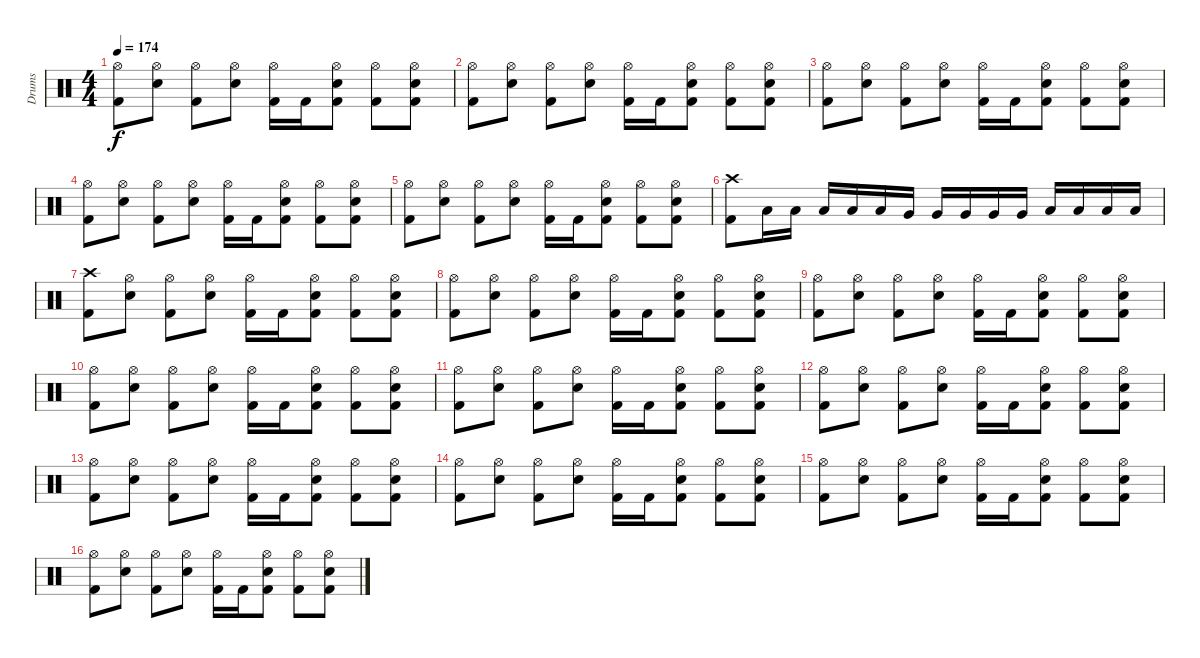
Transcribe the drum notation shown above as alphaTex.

\track ("Drums" "Drums") {instrument percussion}
\staff {score}
\articulation defaults
\ts (4 4)
\tempo 174
\clef neutral
\ks c
("Hi-Hat (open)" "Kick (hit) 2").8{dy f} ("Hi-Hat (open)" "Electric Snare (hit)").8 ("Hi-Hat (open)" "Kick (hit) 2").8 ("Hi-Hat (open)" "Electric Snare (hit)").8 ("Hi-Hat (open)" "Kick (hit) 2").16 "Kick (hit) 2".16 ("Hi-Hat (open)" "Electric Snare (hit)" "Kick (hit) 2").8 ("Hi-Hat (open)" "Kick (hit) 2").8 ("Hi-Hat (open)" "Electric Snare (hit)" "Kick (hit) 2").8 |
("Hi-Hat (open)" "Kick (hit) 2").8 ("Hi-Hat (open)" "Electric Snare (hit)").8 ("Hi-Hat (open)" "Kick (hit) 2").8 ("Hi-Hat (open)" "Electric Snare (hit)").8 ("Hi-Hat (open)" "Kick (hit) 2").16 "Kick (hit) 2".16 ("Hi-Hat (open)" "Electric Snare (hit)" "Kick (hit) 2").8 ("Hi-Hat (open)" "Kick (hit) 2").8 ("Hi-Hat (open)" "Electric Snare (hit)" "Kick (hit) 2").8 |
("Hi-Hat (open)" "Kick (hit) 2").8 ("Hi-Hat (open)" "Electric Snare (hit)").8 ("Hi-Hat (open)" "Kick (hit) 2").8 ("Hi-Hat (open)" "Electric Snare (hit)").8 ("Hi-Hat (open)" "Kick (hit) 2").16 "Kick (hit) 2".16 ("Hi-Hat (open)" "Electric Snare (hit)" "Kick (hit) 2").8 ("Hi-Hat (open)" "Kick (hit) 2").8 ("Hi-Hat (open)" "Electric Snare (hit)" "Kick (hit) 2").8 |
("Hi-Hat (open)" "Kick (hit) 2").8 ("Hi-Hat (open)" "Electric Snare (hit)").8 ("Hi-Hat (open)" "Kick (hit) 2").8 ("Hi-Hat (open)" "Electric Snare (hit)").8 ("Hi-Hat (open)" "Kick (hit) 2").16 "Kick (hit) 2".16 ("Hi-Hat (open)" "Electric Snare (hit)" "Kick (hit) 2").8 ("Hi-Hat (open)" "Kick (hit) 2").8 ("Hi-Hat (open)" "Electric Snare (hit)" "Kick (hit) 2").8 |
("Hi-Hat (open)" "Kick (hit) 2").8 ("Hi-Hat (open)" "Electric Snare (hit)").8 ("Hi-Hat (open)" "Kick (hit) 2").8 ("Hi-Hat (open)" "Electric Snare (hit)").8 ("Hi-Hat (open)" "Kick (hit) 2").16 "Kick (hit) 2".16 ("Hi-Hat (open)" "Electric Snare (hit)" "Kick (hit) 2").8 ("Hi-Hat (open)" "Kick (hit) 2").8 ("Hi-Hat (open)" "Electric Snare (hit)" "Kick (hit) 2").8 |
("Crash high (hit)" "Kick (hit) 2").8 "Low Tom (hit)".16 "Low Tom (hit)".16 "Low Tom (hit)".16 "Low Tom (hit)".16 "Low Tom (hit)".16 "Very Low Tom (hit)".16 "Very Low Tom (hit)".16 "Very Low Tom (hit)".16 "Very Low Tom (hit)".16 "Very Low Tom (hit)".16 "Low Floor Tom (hit)".16 "Low Floor Tom (hit)".16 "Low Floor Tom (hit)".16 "Low Floor Tom (hit)".16 |
("Crash high (hit)" "Kick (hit) 2").8 ("Hi-Hat (open)" "Electric Snare (hit)").8 ("Hi-Hat (open)" "Kick (hit) 2").8 ("Hi-Hat (open)" "Electric Snare (hit)").8 ("Hi-Hat (open)" "Kick (hit) 2").16 "Kick (hit) 2".16 ("Hi-Hat (open)" "Electric Snare (hit)" "Kick (hit) 2").8 ("Hi-Hat (open)" "Kick (hit) 2").8 ("Hi-Hat (open)" "Electric Snare (hit)" "Kick (hit) 2").8 |
("Hi-Hat (open)" "Kick (hit) 2").8 ("Hi-Hat (open)" "Electric Snare (hit)").8 ("Hi-Hat (open)" "Kick (hit) 2").8 ("Hi-Hat (open)" "Electric Snare (hit)").8 ("Hi-Hat (open)" "Kick (hit) 2").16 "Kick (hit) 2".16 ("Hi-Hat (open)" "Electric Snare (hit)" "Kick (hit) 2").8 ("Hi-Hat (open)" "Kick (hit) 2").8 ("Hi-Hat (open)" "Electric Snare (hit)" "Kick (hit) 2").8 |
("Hi-Hat (open)" "Kick (hit) 2").8 ("Hi-Hat (open)" "Electric Snare (hit)").8 ("Hi-Hat (open)" "Kick (hit) 2").8 ("Hi-Hat (open)" "Electric Snare (hit)").8 ("Hi-Hat (open)" "Kick (hit) 2").16 "Kick (hit) 2".16 ("Hi-Hat (open)" "Electric Snare (hit)" "Kick (hit) 2").8 ("Hi-Hat (open)" "Kick (hit) 2").8 ("Hi-Hat (open)" "Electric Snare (hit)" "Kick (hit) 2").8 |
("Hi-Hat (open)" "Kick (hit) 2").8 ("Hi-Hat (open)" "Electric Snare (hit)").8 ("Hi-Hat (open)" "Kick (hit) 2").8 ("Hi-Hat (open)" "Electric Snare (hit)").8 ("Hi-Hat (open)" "Kick (hit) 2").16 "Kick (hit) 2".16 ("Hi-Hat (open)" "Electric Snare (hit)" "Kick (hit) 2").8 ("Hi-Hat (open)" "Kick (hit) 2").8 ("Hi-Hat (open)" "Electric Snare (hit)" "Kick (hit) 2").8 |
("Hi-Hat (open)" "Kick (hit) 2").8 ("Hi-Hat (open)" "Electric Snare (hit)").8 ("Hi-Hat (open)" "Kick (hit) 2").8 ("Hi-Hat (open)" "Electric Snare (hit)").8 ("Hi-Hat (open)" "Kick (hit) 2").16 "Kick (hit) 2".16 ("Hi-Hat (open)" "Electric Snare (hit)" "Kick (hit) 2").8 ("Hi-Hat (open)" "Kick (hit) 2").8 ("Hi-Hat (open)" "Electric Snare (hit)" "Kick (hit) 2").8 |
("Hi-Hat (open)" "Kick (hit) 2").8 ("Hi-Hat (open)" "Electric Snare (hit)").8 ("Hi-Hat (open)" "Kick (hit) 2").8 ("Hi-Hat (open)" "Electric Snare (hit)").8 ("Hi-Hat (open)" "Kick (hit) 2").16 "Kick (hit) 2".16 ("Hi-Hat (open)" "Electric Snare (hit)" "Kick (hit) 2").8 ("Hi-Hat (open)" "Kick (hit) 2").8 ("Hi-Hat (open)" "Electric Snare (hit)" "Kick (hit) 2").8 |
("Hi-Hat (open)" "Kick (hit) 2").8 ("Hi-Hat (open)" "Electric Snare (hit)").8 ("Hi-Hat (open)" "Kick (hit) 2").8 ("Hi-Hat (open)" "Electric Snare (hit)").8 ("Hi-Hat (open)" "Kick (hit) 2").16 "Kick (hit) 2".16 ("Hi-Hat (open)" "Electric Snare (hit)" "Kick (hit) 2").8 ("Hi-Hat (open)" "Kick (hit) 2").8 ("Hi-Hat (open)" "Electric Snare (hit)" "Kick (hit) 2").8 |
("Hi-Hat (open)" "Kick (hit) 2").8 ("Hi-Hat (open)" "Electric Snare (hit)").8 ("Hi-Hat (open)" "Kick (hit) 2").8 ("Hi-Hat (open)" "Electric Snare (hit)").8 ("Hi-Hat (open)" "Kick (hit) 2").16 "Kick (hit) 2".16 ("Hi-Hat (open)" "Electric Snare (hit)" "Kick (hit) 2").8 ("Hi-Hat (open)" "Kick (hit) 2").8 ("Hi-Hat (open)" "Electric Snare (hit)" "Kick (hit) 2").8 |
("Hi-Hat (open)" "Kick (hit) 2").8 ("Hi-Hat (open)" "Electric Snare (hit)").8 ("Hi-Hat (open)" "Kick (hit) 2").8 ("Hi-Hat (open)" "Electric Snare (hit)").8 ("Hi-Hat (open)" "Kick (hit) 2").16 "Kick (hit) 2".16 ("Hi-Hat (open)" "Electric Snare (hit)" "Kick (hit) 2").8 ("Hi-Hat (open)" "Kick (hit) 2").8 ("Hi-Hat (open)" "Electric Snare (hit)" "Kick (hit) 2").8 |
("Hi-Hat (open)" "Kick (hit) 2").8 ("Hi-Hat (open)" "Electric Snare (hit)").8 ("Hi-Hat (open)" "Kick (hit) 2").8 ("Hi-Hat (open)" "Electric Snare (hit)").8 ("Hi-Hat (open)" "Kick (hit) 2").16 "Kick (hit) 2".16 ("Hi-Hat (open)" "Electric Snare (hit)" "Kick (hit) 2").8 ("Hi-Hat (open)" "Kick (hit) 2").8 ("Hi-Hat (open)" "Electric Snare (hit)" "Kick (hit) 2").8
